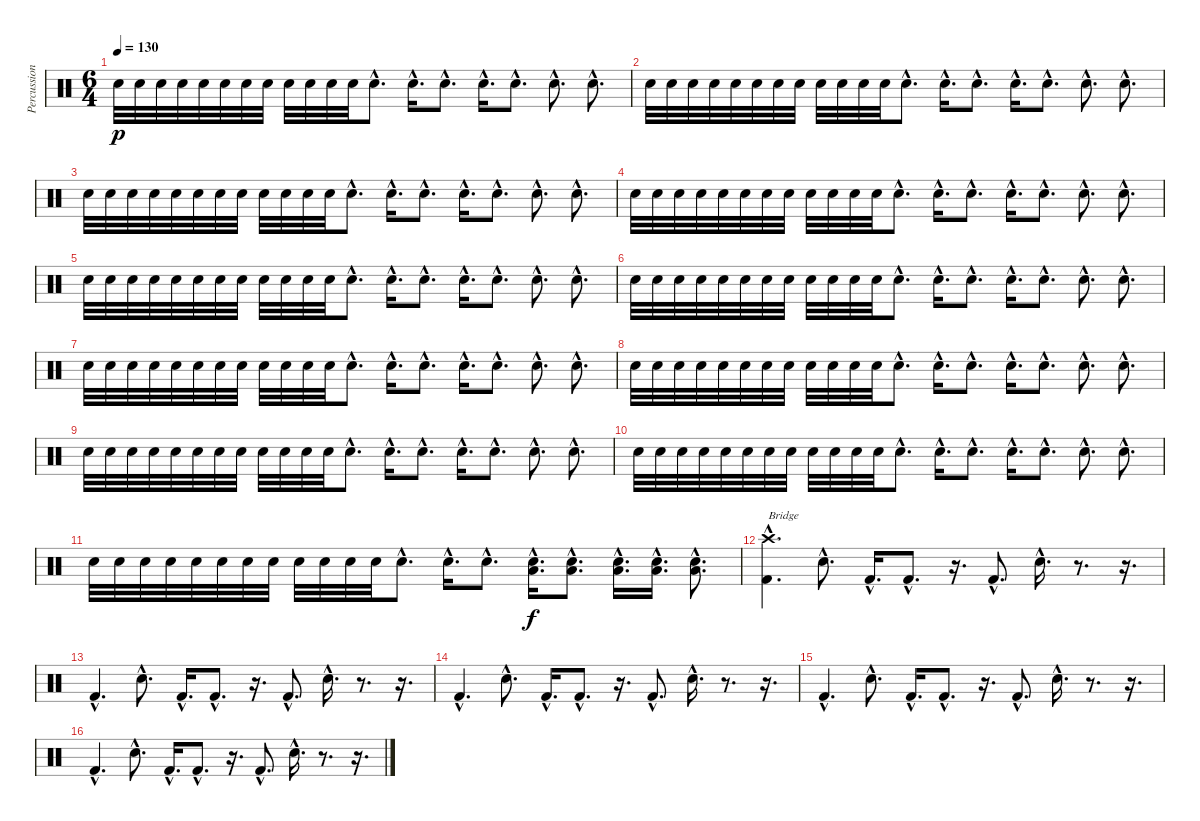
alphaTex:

\track ("Percussion" "Percussion") {instrument percussion}
\staff {score}
\articulation defaults
\ts (6 4)
\tempo 130
\clef neutral
\ks c "Snare (hit) 2".32{dy p} "Snare (hit) 2".32 "Snare (hit) 2".32 "Snare (hit) 2".32 "Snare (hit) 2".32 "Snare (hit) 2".32 "Snare (hit) 2".32 "Snare (hit) 2".32 "Snare (hit) 2".32 "Snare (hit) 2".32 "Snare (hit) 2".32 "Snare (hit) 2".32 "Snare (hit) 2"{hac}.8{d} "Snare (hit) 2"{hac}.16{d} "Snare (hit) 2"{hac}.8{d} "Snare (hit) 2"{hac}.16{d} "Snare (hit) 2"{hac}.8{d} "Snare (hit) 2"{hac}.8{d} "Snare (hit) 2"{hac}.8{d}
|
"Snare (hit) 2".32 "Snare (hit) 2".32 "Snare (hit) 2".32 "Snare (hit) 2".32 "Snare (hit) 2".32 "Snare (hit) 2".32 "Snare (hit) 2".32 "Snare (hit) 2".32 "Snare (hit) 2".32 "Snare (hit) 2".32 "Snare (hit) 2".32 "Snare (hit) 2".32 "Snare (hit) 2"{hac}.8{d} "Snare (hit) 2"{hac}.16{d} "Snare (hit) 2"{hac}.8{d} "Snare (hit) 2"{hac}.16{d} "Snare (hit) 2"{hac}.8{d} "Snare (hit) 2"{hac}.8{d} "Snare (hit) 2"{hac}.8{d} |
"Snare (hit) 2".32 "Snare (hit) 2".32 "Snare (hit) 2".32 "Snare (hit) 2".32 "Snare (hit) 2".32 "Snare (hit) 2".32 "Snare (hit) 2".32 "Snare (hit) 2".32 "Snare (hit) 2".32 "Snare (hit) 2".32 "Snare (hit) 2".32 "Snare (hit) 2".32 "Snare (hit) 2"{hac}.8{d} "Snare (hit) 2"{hac}.16{d} "Snare (hit) 2"{hac}.8{d} "Snare (hit) 2"{hac}.16{d} "Snare (hit) 2"{hac}.8{d} "Snare (hit) 2"{hac}.8{d} "Snare (hit) 2"{hac}.8{d} |
"Snare (hit) 2".32 "Snare (hit) 2".32 "Snare (hit) 2".32 "Snare (hit) 2".32 "Snare (hit) 2".32 "Snare (hit) 2".32 "Snare (hit) 2".32 "Snare (hit) 2".32 "Snare (hit) 2".32 "Snare (hit) 2".32 "Snare (hit) 2".32 "Snare (hit) 2".32 "Snare (hit) 2"{hac}.8{d} "Snare (hit) 2"{hac}.16{d} "Snare (hit) 2"{hac}.8{d} "Snare (hit) 2"{hac}.16{d} "Snare (hit) 2"{hac}.8{d} "Snare (hit) 2"{hac}.8{d} "Snare (hit) 2"{hac}.8{d} |
"Snare (hit) 2".32 "Snare (hit) 2".32 "Snare (hit) 2".32 "Snare (hit) 2".32 "Snare (hit) 2".32 "Snare (hit) 2".32 "Snare (hit) 2".32 "Snare (hit) 2".32 "Snare (hit) 2".32 "Snare (hit) 2".32 "Snare (hit) 2".32 "Snare (hit) 2".32 "Snare (hit) 2"{hac}.8{d} "Snare (hit) 2"{hac}.16{d} "Snare (hit) 2"{hac}.8{d} "Snare (hit) 2"{hac}.16{d} "Snare (hit) 2"{hac}.8{d} "Snare (hit) 2"{hac}.8{d} "Snare (hit) 2"{hac}.8{d} |
"Snare (hit) 2".32 "Snare (hit) 2".32 "Snare (hit) 2".32 "Snare (hit) 2".32 "Snare (hit) 2".32 "Snare (hit) 2".32 "Snare (hit) 2".32 "Snare (hit) 2".32 "Snare (hit) 2".32 "Snare (hit) 2".32 "Snare (hit) 2".32 "Snare (hit) 2".32 "Snare (hit) 2"{hac}.8{d} "Snare (hit) 2"{hac}.16{d} "Snare (hit) 2"{hac}.8{d} "Snare (hit) 2"{hac}.16{d} "Snare (hit) 2"{hac}.8{d} "Snare (hit) 2"{hac}.8{d} "Snare (hit) 2"{hac}.8{d} |
"Snare (hit) 2".32 "Snare (hit) 2".32 "Snare (hit) 2".32 "Snare (hit) 2".32 "Snare (hit) 2".32 "Snare (hit) 2".32 "Snare (hit) 2".32 "Snare (hit) 2".32 "Snare (hit) 2".32 "Snare (hit) 2".32 "Snare (hit) 2".32 "Snare (hit) 2".32 "Snare (hit) 2"{hac}.8{d} "Snare (hit) 2"{hac}.16{d} "Snare (hit) 2"{hac}.8{d} "Snare (hit) 2"{hac}.16{d} "Snare (hit) 2"{hac}.8{d} "Snare (hit) 2"{hac}.8{d} "Snare (hit) 2"{hac}.8{d} |
"Snare (hit) 2".32 "Snare (hit) 2".32 "Snare (hit) 2".32 "Snare (hit) 2".32 "Snare (hit) 2".32 "Snare (hit) 2".32 "Snare (hit) 2".32 "Snare (hit) 2".32 "Snare (hit) 2".32 "Snare (hit) 2".32 "Snare (hit) 2".32 "Snare (hit) 2".32 "Snare (hit) 2"{hac}.8{d} "Snare (hit) 2"{hac}.16{d} "Snare (hit) 2"{hac}.8{d} "Snare (hit) 2"{hac}.16{d} "Snare (hit) 2"{hac}.8{d} "Snare (hit) 2"{hac}.8{d} "Snare (hit) 2"{hac}.8{d} |
"Snare (hit) 2".32 "Snare (hit) 2".32 "Snare (hit) 2".32 "Snare (hit) 2".32 "Snare (hit) 2".32 "Snare (hit) 2".32 "Snare (hit) 2".32 "Snare (hit) 2".32 "Snare (hit) 2".32 "Snare (hit) 2".32 "Snare (hit) 2".32 "Snare (hit) 2".32 "Snare (hit) 2"{hac}.8{d} "Snare (hit) 2"{hac}.16{d} "Snare (hit) 2"{hac}.8{d} "Snare (hit) 2"{hac}.16{d} "Snare (hit) 2"{hac}.8{d} "Snare (hit) 2"{hac}.8{d} "Snare (hit) 2"{hac}.8{d} |
"Snare (hit) 2".32 "Snare (hit) 2".32 "Snare (hit) 2".32 "Snare (hit) 2".32 "Snare (hit) 2".32 "Snare (hit) 2".32 "Snare (hit) 2".32 "Snare (hit) 2".32 "Snare (hit) 2".32 "Snare (hit) 2".32 "Snare (hit) 2".32 "Snare (hit) 2".32 "Snare (hit) 2"{hac}.8{d} "Snare (hit) 2"{hac}.16{d} "Snare (hit) 2"{hac}.8{d} "Snare (hit) 2"{hac}.16{d} "Snare (hit) 2"{hac}.8{d} "Snare (hit) 2"{hac}.8{d} "Snare (hit) 2"{hac}.8{d} |
"Snare (hit) 2".32 "Snare (hit) 2".32 "Snare (hit) 2".32 "Snare (hit) 2".32 "Snare (hit) 2".32 "Snare (hit) 2".32 "Snare (hit) 2".32 "Snare (hit) 2".32 "Snare (hit) 2".32 "Snare (hit) 2".32 "Snare (hit) 2".32 "Snare (hit) 2".32 "Snare (hit) 2"{hac}.8{d} "Snare (hit) 2"{hac}.16{d} "Snare (hit) 2"{hac}.8{d} ("Snare (hit) 2"{hac} "Low Tom (hit)"{hac}).16{d dy f volume 16} ("Snare (hit) 2"{hac} "Low Tom (hit)"{hac}).8{d} ("Snare (hit) 2"{hac} "Low Tom (hit)"{hac}).16{d} ("Snare (hit) 2"{hac} "Low Tom (hit)"{hac}).16{d} ("Snare (hit) 2"{hac} "Low Tom (hit)"{hac}).8{d} |
("Kick (hit) 2"{hac} "Crash high (hit)"{hac}).4{d txt "Bridge"} "Snare (hit) 2"{hac}.8{d} "Kick (hit) 2"{hac}.16{d} "Kick (hit) 2"{hac}.8{d} r.16{d} "Kick (hit) 2"{hac}.8{d} "Snare (hit) 2"{hac}.16{d} r.8{d} r.16{d} |
"Kick (hit) 2"{hac}.4{d} "Snare (hit) 2"{hac}.8{d} "Kick (hit) 2"{hac}.16{d} "Kick (hit) 2"{hac}.8{d} r.16{d} "Kick (hit) 2"{hac}.8{d} "Snare (hit) 2"{hac}.16{d} r.8{d} r.16{d} |
"Kick (hit) 2"{hac}.4{d} "Snare (hit) 2"{hac}.8{d} "Kick (hit) 2"{hac}.16{d} "Kick (hit) 2"{hac}.8{d} r.16{d} "Kick (hit) 2"{hac}.8{d} "Snare (hit) 2"{hac}.16{d} r.8{d} r.16{d} |
"Kick (hit) 2"{hac}.4{d} "Snare (hit) 2"{hac}.8{d} "Kick (hit) 2"{hac}.16{d} "Kick (hit) 2"{hac}.8{d} r.16{d} "Kick (hit) 2"{hac}.8{d} "Snare (hit) 2"{hac}.16{d} r.8{d} r.16{d} |
"Kick (hit) 2"{hac}.4{d} "Snare (hit) 2"{hac}.8{d} "Kick (hit) 2"{hac}.16{d} "Kick (hit) 2"{hac}.8{d} r.16{d} "Kick (hit) 2"{hac}.8{d} "Snare (hit) 2"{hac}.16{d} r.8{d} r.16{d}
